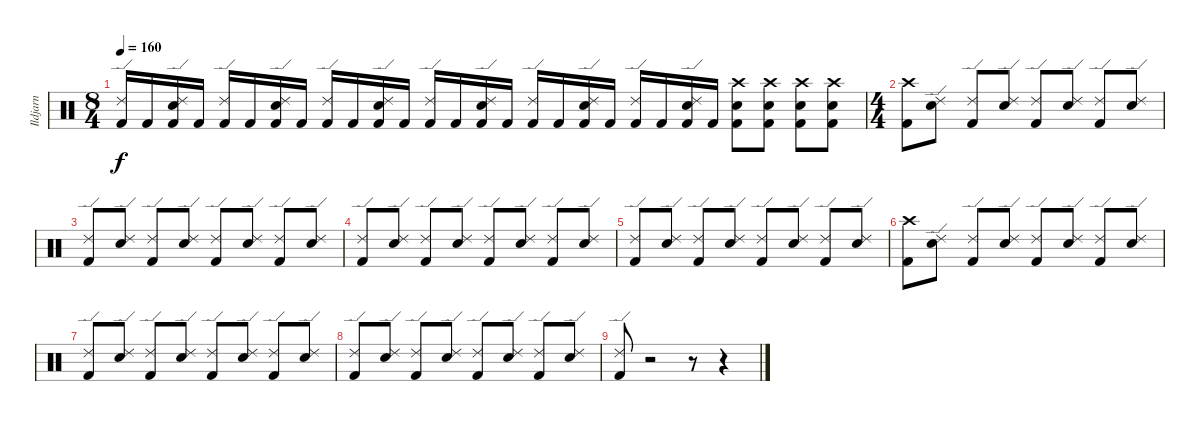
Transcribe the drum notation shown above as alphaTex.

\track ("Ildjarn" "Ildjarn") {instrument percussion}
\staff {score}
\articulation defaults
\ts (8 4)
\tempo 160
\clef neutral
\ks c
("Ride (edge) 2" "Kick (hit) 2").16{dy f} "Kick (hit) 2".16 ("Ride (edge) 2" "Snare (hit) 2" "Kick (hit) 2").16 "Kick (hit) 2".16 ("Ride (edge) 2" "Kick (hit) 2").16 "Kick (hit) 2".16 ("Ride (edge) 2" "Snare (hit) 2" "Kick (hit) 2").16 "Kick (hit) 2".16 ("Ride (edge) 2" "Kick (hit) 2").16 "Kick (hit) 2".16 ("Ride (edge) 2" "Snare (hit) 2" "Kick (hit) 2").16 "Kick (hit) 2".16 ("Ride (edge) 2" "Kick (hit) 2").16 "Kick (hit) 2".16 ("Ride (edge) 2" "Snare (hit) 2" "Kick (hit) 2").16 "Kick (hit) 2".16 ("Ride (edge) 2" "Kick (hit) 2").16 "Kick (hit) 2".16 ("Ride (edge) 2" "Snare (hit) 2" "Kick (hit) 2").16 "Kick (hit) 2".16 ("Ride (edge) 2" "Kick (hit) 2").16 "Kick (hit) 2".16 ("Ride (edge) 2" "Snare (hit) 2" "Kick (hit) 2").16 "Kick (hit) 2".16 ("Crash high (hit)" "Snare (hit) 2" "Kick (hit) 2").8 ("Crash high (hit)" "Snare (hit) 2" "Kick (hit) 2").8 ("Crash high (hit)" "Snare (hit) 2" "Kick (hit) 2").8 ("Crash high (hit)" "Snare (hit) 2" "Kick (hit) 2").8 |
\ts (4 4)
("Crash high (hit)" "Kick (hit) 2").8 ("Ride (edge) 2" "Snare (hit) 2").8 ("Ride (edge) 2" "Kick (hit) 2").8 ("Ride (edge) 2" "Snare (hit) 2").8 ("Ride (edge) 2" "Kick (hit) 2").8 ("Ride (edge) 2" "Snare (hit) 2").8 ("Ride (edge) 2" "Kick (hit) 2").8 ("Ride (edge) 2" "Snare (hit) 2").8 |
("Ride (edge) 2" "Kick (hit) 2").8 ("Ride (edge) 2" "Snare (hit) 2").8 ("Ride (edge) 2" "Kick (hit) 2").8 ("Ride (edge) 2" "Snare (hit) 2").8 ("Ride (edge) 2" "Kick (hit) 2").8 ("Ride (edge) 2" "Snare (hit) 2").8 ("Ride (edge) 2" "Kick (hit) 2").8 ("Ride (edge) 2" "Snare (hit) 2").8 |
("Ride (edge) 2" "Kick (hit) 2").8 ("Ride (edge) 2" "Snare (hit) 2").8 ("Ride (edge) 2" "Kick (hit) 2").8 ("Ride (edge) 2" "Snare (hit) 2").8 ("Ride (edge) 2" "Kick (hit) 2").8 ("Ride (edge) 2" "Snare (hit) 2").8 ("Ride (edge) 2" "Kick (hit) 2").8 ("Ride (edge) 2" "Snare (hit) 2").8 |
("Ride (edge) 2" "Kick (hit) 2").8 ("Ride (edge) 2" "Snare (hit) 2").8 ("Ride (edge) 2" "Kick (hit) 2").8 ("Ride (edge) 2" "Snare (hit) 2").8 ("Ride (edge) 2" "Kick (hit) 2").8 ("Ride (edge) 2" "Snare (hit) 2").8 ("Ride (edge) 2" "Kick (hit) 2").8 ("Ride (edge) 2" "Snare (hit) 2").8 |
("Crash high (hit)" "Kick (hit) 2").8 ("Ride (edge) 2" "Snare (hit) 2").8 ("Ride (edge) 2" "Kick (hit) 2").8 ("Ride (edge) 2" "Snare (hit) 2").8 ("Ride (edge) 2" "Kick (hit) 2").8 ("Ride (edge) 2" "Snare (hit) 2").8 ("Ride (edge) 2" "Kick (hit) 2").8 ("Ride (edge) 2" "Snare (hit) 2").8 |
("Ride (edge) 2" "Kick (hit) 2").8 ("Ride (edge) 2" "Snare (hit) 2").8 ("Ride (edge) 2" "Kick (hit) 2").8 ("Ride (edge) 2" "Snare (hit) 2").8 ("Ride (edge) 2" "Kick (hit) 2").8 ("Ride (edge) 2" "Snare (hit) 2").8 ("Ride (edge) 2" "Kick (hit) 2").8 ("Ride (edge) 2" "Snare (hit) 2").8 |
("Ride (edge) 2" "Kick (hit) 2").8 ("Ride (edge) 2" "Snare (hit) 2").8 ("Ride (edge) 2" "Kick (hit) 2").8 ("Ride (edge) 2" "Snare (hit) 2").8 ("Ride (edge) 2" "Kick (hit) 2").8 ("Ride (edge) 2" "Snare (hit) 2").8 ("Ride (edge) 2" "Kick (hit) 2").8 ("Ride (edge) 2" "Snare (hit) 2").8 |
("Ride (edge) 2" "Kick (hit) 2").8 r.2 r.8 r.4
